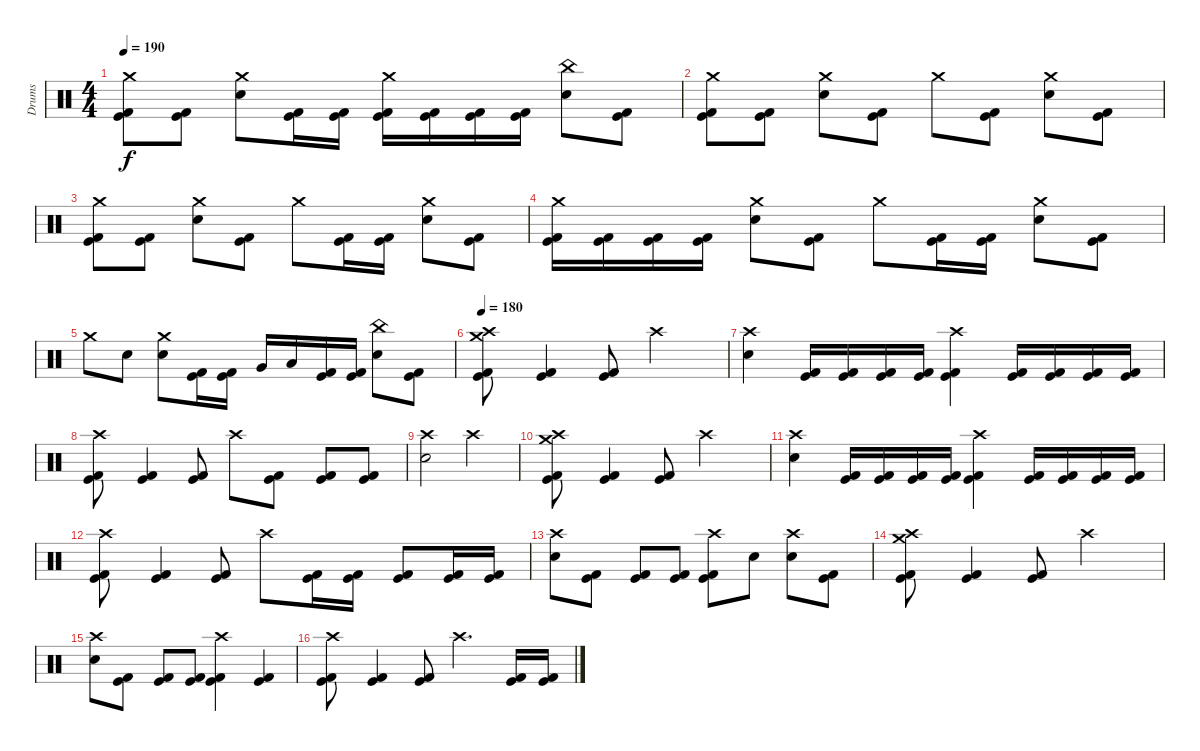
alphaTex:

\track ("Drums" "Drums") {instrument percussion}
\staff {score}
\articulation defaults
\ts (4 4)
\tempo 190
\clef neutral
\ks c
("Crash medium (hit)" "Kick (hit)" "Kick (hit) 2").8{dy f} ("Kick (hit)" "Kick (hit) 2").8 ("Crash medium (hit)" "Electric Snare (hit)").8 ("Kick (hit)" "Kick (hit) 2").16 ("Kick (hit)" "Kick (hit) 2").16 ("Crash medium (hit)" "Kick (hit)" "Kick (hit) 2").16 ("Kick (hit)" "Kick (hit) 2").16 ("Kick (hit)" "Kick (hit) 2").16 ("Kick (hit)" "Kick (hit) 2").16 ("China (hit)" "Electric Snare (hit)").8 ("Kick (hit)" "Kick (hit) 2").8 |
("Crash medium (hit)" "Kick (hit)" "Kick (hit) 2").8 ("Kick (hit)" "Kick (hit) 2").8 ("Crash medium (hit)" "Electric Snare (hit)").8 ("Kick (hit)" "Kick (hit) 2").8 "Crash medium (hit)".8 ("Kick (hit)" "Kick (hit) 2").8 ("Crash medium (hit)" "Electric Snare (hit)").8 ("Kick (hit)" "Kick (hit) 2").8 |
("Crash medium (hit)" "Kick (hit)" "Kick (hit) 2").8 ("Kick (hit)" "Kick (hit) 2").8 ("Crash medium (hit)" "Electric Snare (hit)").8 ("Kick (hit)" "Kick (hit) 2").8 "Crash medium (hit)".8 ("Kick (hit)" "Kick (hit) 2").16 ("Kick (hit)" "Kick (hit) 2").16 ("Crash medium (hit)" "Electric Snare (hit)").8 ("Kick (hit)" "Kick (hit) 2").8 |
("Crash medium (hit)" "Kick (hit)" "Kick (hit) 2").16 ("Kick (hit)" "Kick (hit) 2").16 ("Kick (hit)" "Kick (hit) 2").16 ("Kick (hit)" "Kick (hit) 2").16 ("Crash medium (hit)" "Electric Snare (hit)").8 ("Kick (hit)" "Kick (hit) 2").8 "Crash medium (hit)".8 ("Kick (hit)" "Kick (hit) 2").16 ("Kick (hit)" "Kick (hit) 2").16 ("Crash medium (hit)" "Electric Snare (hit)").8 ("Kick (hit)" "Kick (hit) 2").8 |
"Crash medium (hit)".8 "Electric Snare (hit)".8 ("Crash medium (hit)" "Electric Snare (hit)").8 ("Kick (hit)" "Kick (hit) 2").16 ("Kick (hit)" "Kick (hit) 2").16 "Very Low Tom (hit)".16 "Low Floor Tom (hit)".16 ("Kick (hit)" "Kick (hit) 2").16 ("Kick (hit)" "Kick (hit) 2").16 ("China (hit)" "Electric Snare (hit)").8 ("Kick (hit)" "Kick (hit) 2").8 |
\tempo 180
("Crash medium (hit)" "Crash high (hit)" "Kick (hit)" "Kick (hit) 2").8 ("Kick (hit)" "Kick (hit) 2").4 ("Kick (hit)" "Kick (hit) 2").8 "Crash high (hit)".2 |
("Crash high (hit)" "Electric Snare (hit)").4 ("Kick (hit)" "Kick (hit) 2").16 ("Kick (hit)" "Kick (hit) 2").16 ("Kick (hit)" "Kick (hit) 2").16 ("Kick (hit)" "Kick (hit) 2").16 ("Crash high (hit)" "Kick (hit)" "Kick (hit) 2").4 ("Kick (hit)" "Kick (hit) 2").16 ("Kick (hit)" "Kick (hit) 2").16 ("Kick (hit)" "Kick (hit) 2").16 ("Kick (hit)" "Kick (hit) 2").16 |
("Crash high (hit)" "Kick (hit)" "Kick (hit) 2").8 ("Kick (hit)" "Kick (hit) 2").4 ("Kick (hit)" "Kick (hit) 2").8 "Crash high (hit)".8 ("Kick (hit)" "Kick (hit) 2").8 ("Kick (hit)" "Kick (hit) 2").8 ("Kick (hit)" "Kick (hit) 2").8 |
("Crash high (hit)" "Electric Snare (hit)").2 "Crash high (hit)".2 |
("Crash medium (hit)" "Crash high (hit)" "Kick (hit)" "Kick (hit) 2").8 ("Kick (hit)" "Kick (hit) 2").4 ("Kick (hit)" "Kick (hit) 2").8 "Crash high (hit)".2 |
("Crash high (hit)" "Electric Snare (hit)").4 ("Kick (hit)" "Kick (hit) 2").16 ("Kick (hit)" "Kick (hit) 2").16 ("Kick (hit)" "Kick (hit) 2").16 ("Kick (hit)" "Kick (hit) 2").16 ("Crash high (hit)" "Kick (hit)" "Kick (hit) 2").4 ("Kick (hit)" "Kick (hit) 2").16 ("Kick (hit)" "Kick (hit) 2").16 ("Kick (hit)" "Kick (hit) 2").16 ("Kick (hit)" "Kick (hit) 2").16 |
("Crash high (hit)" "Kick (hit)" "Kick (hit) 2").8 ("Kick (hit)" "Kick (hit) 2").4 ("Kick (hit)" "Kick (hit) 2").8 "Crash high (hit)".8 ("Kick (hit)" "Kick (hit) 2").16 ("Kick (hit)" "Kick (hit) 2").16 ("Kick (hit)" "Kick (hit) 2").8 ("Kick (hit)" "Kick (hit) 2").16 ("Kick (hit)" "Kick (hit) 2").16 |
("Crash high (hit)" "Electric Snare (hit)").8 ("Kick (hit)" "Kick (hit) 2").8 ("Kick (hit)" "Kick (hit) 2").8 ("Kick (hit)" "Kick (hit) 2").8 ("Crash high (hit)" "Kick (hit)" "Kick (hit) 2").8 "Electric Snare (hit)".8 ("Crash high (hit)" "Electric Snare (hit)").8 ("Kick (hit)" "Kick (hit) 2").8 |
("Crash medium (hit)" "Crash high (hit)" "Kick (hit)" "Kick (hit) 2").8 ("Kick (hit)" "Kick (hit) 2").4 ("Kick (hit)" "Kick (hit) 2").8 "Crash high (hit)".2 |
("Crash high (hit)" "Electric Snare (hit)").8 ("Kick (hit)" "Kick (hit) 2").8 ("Kick (hit)" "Kick (hit) 2").8 ("Kick (hit)" "Kick (hit) 2").8 ("Crash high (hit)" "Kick (hit)" "Kick (hit) 2").4 ("Kick (hit)" "Kick (hit) 2").4 |
("Crash high (hit)" "Kick (hit)" "Kick (hit) 2").8 ("Kick (hit)" "Kick (hit) 2").4 ("Kick (hit)" "Kick (hit) 2").8 "Crash high (hit)".4{d} ("Kick (hit)" "Kick (hit) 2").16 ("Kick (hit)" "Kick (hit) 2").16
